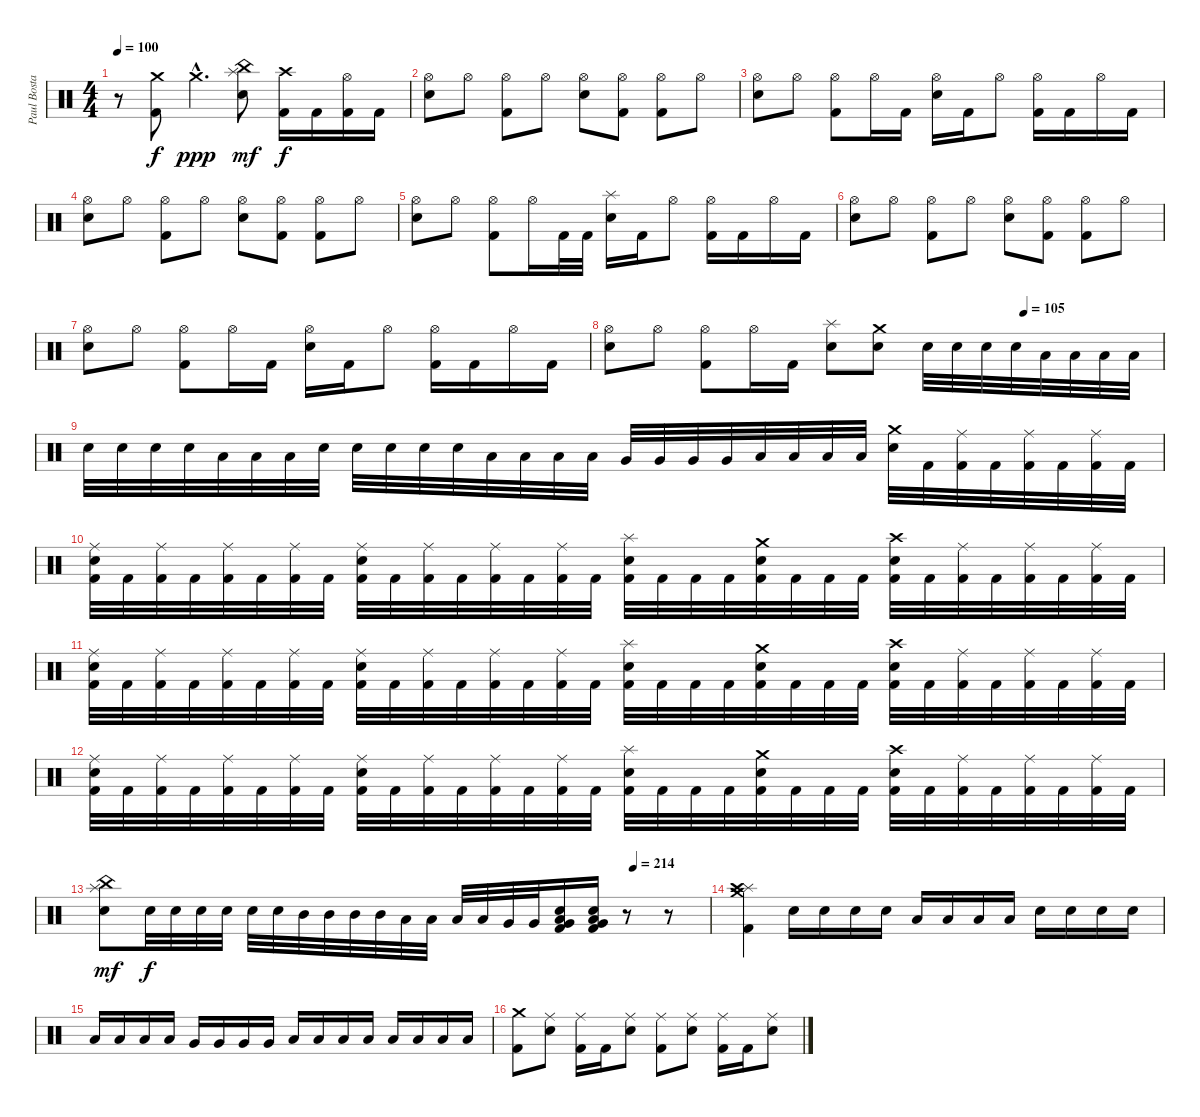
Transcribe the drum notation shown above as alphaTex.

\track ("Paul Bostaph" "Paul Bosta") {instrument percussion}
\staff {score}
\articulation defaults
\ts (4 4)
\tempo 100
\clef neutral
\ks c
r.8{dy ppp} ("Kick (hit) 2" "Crash medium (hit)").8{dy f} "Crash medium (hit)"{hac}.4{d dy ppp} ("Electric Snare (hit)" "Splash (hit)" "China (hit)").8{dy mf} ("Kick (hit) 2" "Crash high (hit)").16{dy f} "Kick (hit) 2".16 ("Kick (hit) 2" "Hi-Hat (open)").16 "Kick (hit) 2".16 |
("Hi-Hat (open)" "Electric Snare (hit)").8 "Hi-Hat (open)".8 ("Hi-Hat (open)" "Kick (hit) 2").8 "Hi-Hat (open)".8 ("Hi-Hat (open)" "Electric Snare (hit)").8 ("Hi-Hat (open)" "Kick (hit) 2").8 ("Hi-Hat (open)" "Kick (hit) 2").8 "Hi-Hat (open)".8 |
("Hi-Hat (open)" "Electric Snare (hit)").8 "Hi-Hat (open)".8 ("Hi-Hat (open)" "Kick (hit) 2").8 "Hi-Hat (open)".16 "Kick (hit) 2".16 ("Hi-Hat (open)" "Electric Snare (hit)").16 "Kick (hit) 2".16 "Hi-Hat (open)".8 ("Hi-Hat (open)" "Kick (hit) 2").16 "Kick (hit) 2".16 "Hi-Hat (open)".16 "Kick (hit) 2".16 |
("Hi-Hat (open)" "Electric Snare (hit)").8 "Hi-Hat (open)".8 ("Hi-Hat (open)" "Kick (hit) 2").8 "Hi-Hat (open)".8 ("Hi-Hat (open)" "Electric Snare (hit)").8 ("Hi-Hat (open)" "Kick (hit) 2").8 ("Hi-Hat (open)" "Kick (hit) 2").8 "Hi-Hat (open)".8 |
("Hi-Hat (open)" "Electric Snare (hit)").8 "Hi-Hat (open)".8 ("Hi-Hat (open)" "Kick (hit) 2").8 "Hi-Hat (open)".16 "Kick (hit) 2".32 "Kick (hit) 2".32 ("Splash (hit)" "Electric Snare (hit)").16 "Kick (hit) 2".16 "Hi-Hat (open)".8 ("Hi-Hat (open)" "Kick (hit) 2").16 "Kick (hit) 2".16 "Hi-Hat (open)".16 "Kick (hit) 2".16 |
("Hi-Hat (open)" "Electric Snare (hit)").8 "Hi-Hat (open)".8 ("Hi-Hat (open)" "Kick (hit) 2").8 "Hi-Hat (open)".8 ("Hi-Hat (open)" "Electric Snare (hit)").8 ("Hi-Hat (open)" "Kick (hit) 2").8 ("Hi-Hat (open)" "Kick (hit) 2").8 "Hi-Hat (open)".8 |
("Hi-Hat (open)" "Electric Snare (hit)").8 "Hi-Hat (open)".8 ("Hi-Hat (open)" "Kick (hit) 2").8 "Hi-Hat (open)".16 "Kick (hit) 2".16 ("Hi-Hat (open)" "Electric Snare (hit)").16 "Kick (hit) 2".16 "Hi-Hat (open)".8 ("Hi-Hat (open)" "Kick (hit) 2").16 "Kick (hit) 2".16 "Hi-Hat (open)".16 "Kick (hit) 2".16 |
\tempo (105 0.75)
("Hi-Hat (open)" "Electric Snare (hit)").8 "Hi-Hat (open)".8 ("Hi-Hat (open)" "Kick (hit) 2").8 "Hi-Hat (open)".16 "Kick (hit) 2".16 ("Splash (hit)" "Electric Snare (hit)").8 ("Crash medium (hit)" "Electric Snare (hit)").8 "Electric Snare (hit)".32 "Electric Snare (hit)".32 "Electric Snare (hit)".32 "Electric Snare (hit)".32 "Low Tom (hit)".32 "Low Tom (hit)".32 "Low Tom (hit)".32 "Low Tom (hit)".32 |
"Electric Snare (hit)".32 "Electric Snare (hit)".32 "Electric Snare (hit)".32 "Electric Snare (hit)".32 "Low Tom (hit)".32 "Low Tom (hit)".32 "Low Tom (hit)".32 "Electric Snare (hit)".32 "Electric Snare (hit)".32 "Electric Snare (hit)".32 "Electric Snare (hit)".32 "Electric Snare (hit)".32 "Low Tom (hit)".32 "Low Tom (hit)".32 "Low Tom (hit)".32 "Low Tom (hit)".32 "Very Low Tom (hit)".32 "Very Low Tom (hit)".32 "Very Low Tom (hit)".32 "Very Low Tom (hit)".32 "Low Floor Tom (hit)".32 "Low Floor Tom (hit)".32 "Low Floor Tom (hit)".32 "Low Floor Tom (hit)".32 ("Crash medium (hit)" "Electric Snare (hit)").32 "Kick (hit) 2".32 ("Kick (hit) 2" "Ride (middle)").32 "Kick (hit) 2".32 ("Kick (hit) 2" "Ride (middle)").32 "Kick (hit) 2".32 ("Kick (hit) 2" "Ride (middle)").32 "Kick (hit) 2".32 |
("Kick (hit) 2" "Ride (middle)" "Electric Snare (hit)").32 "Kick (hit) 2".32 ("Kick (hit) 2" "Ride (middle)").32 "Kick (hit) 2".32 ("Kick (hit) 2" "Ride (middle)").32 "Kick (hit) 2".32 ("Kick (hit) 2" "Ride (middle)").32 "Kick (hit) 2".32 ("Kick (hit) 2" "Ride (middle)" "Electric Snare (hit)").32 "Kick (hit) 2".32 ("Kick (hit) 2" "Ride (middle)").32 "Kick (hit) 2".32 ("Kick (hit) 2" "Ride (middle)").32 "Kick (hit) 2".32 ("Kick (hit) 2" "Ride (middle)").32 "Kick (hit) 2".32 ("Kick (hit) 2" "Splash (hit)" "Electric Snare (hit)").32 "Kick (hit) 2".32 "Kick (hit) 2".32 "Kick (hit) 2".32 ("Kick (hit) 2" "Crash medium (hit)" "Electric Snare (hit)").32 "Kick (hit) 2".32 "Kick (hit) 2".32 "Kick (hit) 2".32 ("Kick (hit) 2" "Crash high (hit)" "Electric Snare (hit)").32 "Kick (hit) 2".32 ("Kick (hit) 2" "Ride (middle)").32 "Kick (hit) 2".32 ("Kick (hit) 2" "Ride (middle)").32 "Kick (hit) 2".32 ("Kick (hit) 2" "Ride (middle)").32 "Kick (hit) 2".32 |
("Kick (hit) 2" "Ride (middle)" "Electric Snare (hit)").32 "Kick (hit) 2".32 ("Kick (hit) 2" "Ride (middle)").32 "Kick (hit) 2".32 ("Kick (hit) 2" "Ride (middle)").32 "Kick (hit) 2".32 ("Kick (hit) 2" "Ride (middle)").32 "Kick (hit) 2".32 ("Kick (hit) 2" "Ride (middle)" "Electric Snare (hit)").32 "Kick (hit) 2".32 ("Kick (hit) 2" "Ride (middle)").32 "Kick (hit) 2".32 ("Kick (hit) 2" "Ride (middle)").32 "Kick (hit) 2".32 ("Kick (hit) 2" "Ride (middle)").32 "Kick (hit) 2".32 ("Kick (hit) 2" "Splash (hit)" "Electric Snare (hit)").32 "Kick (hit) 2".32 "Kick (hit) 2".32 "Kick (hit) 2".32 ("Kick (hit) 2" "Crash medium (hit)" "Electric Snare (hit)").32 "Kick (hit) 2".32 "Kick (hit) 2".32 "Kick (hit) 2".32 ("Kick (hit) 2" "Crash high (hit)" "Electric Snare (hit)").32 "Kick (hit) 2".32 ("Kick (hit) 2" "Ride (middle)").32 "Kick (hit) 2".32 ("Kick (hit) 2" "Ride (middle)").32 "Kick (hit) 2".32 ("Kick (hit) 2" "Ride (middle)").32 "Kick (hit) 2".32 |
("Kick (hit) 2" "Ride (middle)" "Electric Snare (hit)").32 "Kick (hit) 2".32 ("Kick (hit) 2" "Ride (middle)").32 "Kick (hit) 2".32 ("Kick (hit) 2" "Ride (middle)").32 "Kick (hit) 2".32 ("Kick (hit) 2" "Ride (middle)").32 "Kick (hit) 2".32 ("Kick (hit) 2" "Ride (middle)" "Electric Snare (hit)").32 "Kick (hit) 2".32 ("Kick (hit) 2" "Ride (middle)").32 "Kick (hit) 2".32 ("Kick (hit) 2" "Ride (middle)").32 "Kick (hit) 2".32 ("Kick (hit) 2" "Ride (middle)").32 "Kick (hit) 2".32 ("Kick (hit) 2" "Splash (hit)" "Electric Snare (hit)").32 "Kick (hit) 2".32 "Kick (hit) 2".32 "Kick (hit) 2".32 ("Kick (hit) 2" "Crash medium (hit)" "Electric Snare (hit)").32 "Kick (hit) 2".32 "Kick (hit) 2".32 "Kick (hit) 2".32 ("Kick (hit) 2" "Crash high (hit)" "Electric Snare (hit)").32 "Kick (hit) 2".32 ("Kick (hit) 2" "Ride (middle)").32 "Kick (hit) 2".32 ("Kick (hit) 2" "Ride (middle)").32 "Kick (hit) 2".32 ("Kick (hit) 2" "Ride (middle)").32 "Kick (hit) 2".32 |
\tempo (214 0.875)
("Splash (hit)" "China (hit)" "Electric Snare (hit)").8{dy mf} "Electric Snare (hit)".32{dy f} "Electric Snare (hit)".32 "Electric Snare (hit)".32 "Electric Snare (hit)".32 "Electric Snare (hit)".32 "Electric Snare (hit)".32 "Mid Tom (hit)".32 "Mid Tom (hit)".32 "Mid Tom (hit)".32 "Mid Tom (hit)".32 "Low Tom (hit)".32 "Low Tom (hit)".32 "Low Tom (hit)".32 "Low Tom (hit)".32 "Very Low Tom (hit)".32 "Very Low Tom (hit)".32 ("Kick (hit) 2" "Electric Snare (hit)" "Low Floor Tom (hit)" "Very Low Tom (hit)").16 ("Kick (hit) 2" "Electric Snare (hit)" "Low Floor Tom (hit)" "Very Low Tom (hit)").16 r.8 r.8 |
("Kick (hit) 2" "Splash (hit)" "Crash medium (hit)" "Crash high (hit)").4 "Electric Snare (hit)".16 "Electric Snare (hit)".16 "Electric Snare (hit)".16 "Electric Snare (hit)".16 "Low Tom (hit)".16 "Low Tom (hit)".16 "Low Tom (hit)".16 "Low Tom (hit)".16 "Electric Snare (hit)".16 "Electric Snare (hit)".16 "Electric Snare (hit)".16 "Electric Snare (hit)".16 |
"Low Tom (hit)".16 "Low Tom (hit)".16 "Low Tom (hit)".16 "Low Tom (hit)".16 "Very Low Tom (hit)".16 "Very Low Tom (hit)".16 "Very Low Tom (hit)".16 "Very Low Tom (hit)".16 "Low Floor Tom (hit)".16 "Low Floor Tom (hit)".16 "Low Floor Tom (hit)".16 "Low Floor Tom (hit)".16 "Low Floor Tom (hit)".16 "Low Floor Tom (hit)".16 "Low Floor Tom (hit)".16 "Low Floor Tom (hit)".16 |
("Kick (hit) 2" "Crash medium (hit)").8 ("Electric Snare (hit)" "Ride (middle)").8 ("Kick (hit) 2" "Ride (middle)").16 "Kick (hit) 2".16 ("Electric Snare (hit)" "Ride (middle)").8 ("Kick (hit) 2" "Ride (middle)").8 ("Electric Snare (hit)" "Ride (middle)").8 ("Kick (hit) 2" "Ride (middle)").16 "Kick (hit) 2".16 ("Electric Snare (hit)" "Ride (middle)").8
